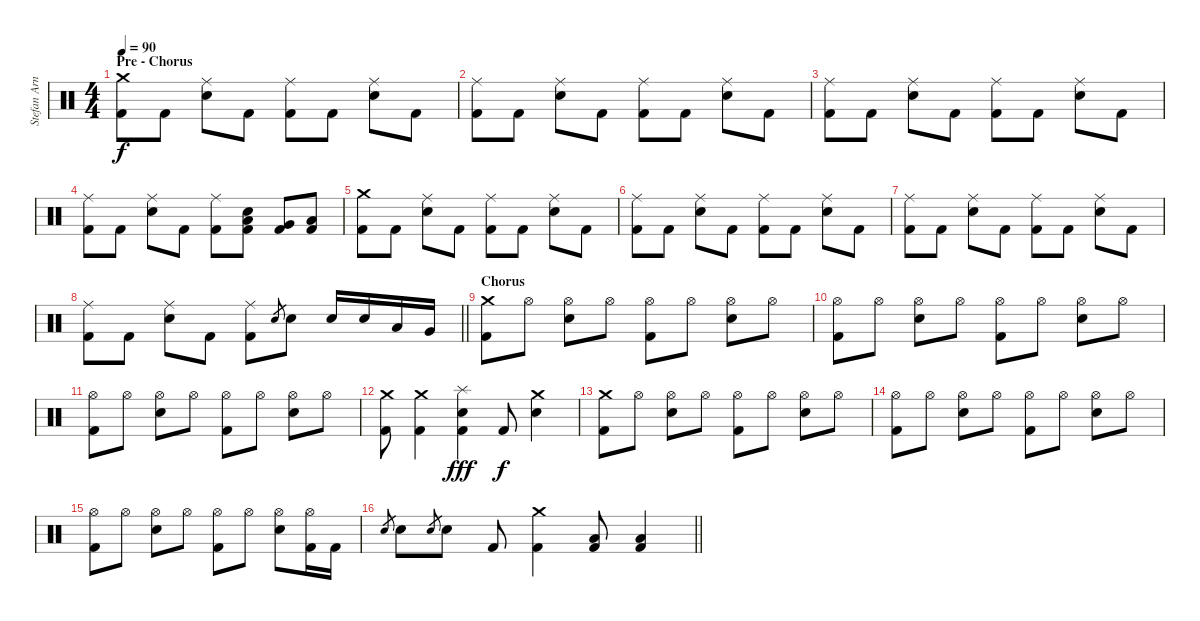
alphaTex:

\track ("Stefan Arnold" "Stefan Arn") {instrument percussion}
\staff {score}
\articulation defaults
\ts (4 4)
\section ("" "Pre - Chorus")
\tempo 90
\clef neutral
\ks c
("Crash medium (hit)" "Kick (hit) 2").8{dy f} "Kick (hit) 2".8 ("Ride (middle)" "Electric Snare (hit)").8 "Kick (hit) 2".8 ("Ride (middle)" "Kick (hit) 2").8 "Kick (hit) 2".8 ("Ride (middle)" "Electric Snare (hit)").8 "Kick (hit) 2".8 |
("Ride (middle)" "Kick (hit) 2").8 "Kick (hit) 2".8 ("Ride (middle)" "Electric Snare (hit)").8 "Kick (hit) 2".8 ("Ride (middle)" "Kick (hit) 2").8 "Kick (hit) 2".8 ("Ride (middle)" "Electric Snare (hit)").8 "Kick (hit) 2".8 |
("Ride (middle)" "Kick (hit) 2").8 "Kick (hit) 2".8 ("Ride (middle)" "Electric Snare (hit)").8 "Kick (hit) 2".8 ("Ride (middle)" "Kick (hit) 2").8 "Kick (hit) 2".8 ("Ride (middle)" "Electric Snare (hit)").8 "Kick (hit) 2".8 |
("Ride (middle)" "Kick (hit) 2").8 "Kick (hit) 2".8 ("Ride (middle)" "Electric Snare (hit)").8 "Kick (hit) 2".8 ("Ride (middle)" "Kick (hit) 2").8 ("Electric Snare (hit)" "Low Tom (hit)" "Kick (hit) 2").8 ("Very Low Tom (hit)" "Kick (hit) 2").8 ("Low Floor Tom (hit)" "Kick (hit) 2").8 |
("Crash medium (hit)" "Kick (hit) 2").8 "Kick (hit) 2".8 ("Ride (middle)" "Electric Snare (hit)").8 "Kick (hit) 2".8 ("Ride (middle)" "Kick (hit) 2").8 "Kick (hit) 2".8 ("Ride (middle)" "Electric Snare (hit)").8 "Kick (hit) 2".8 |
("Ride (middle)" "Kick (hit) 2").8 "Kick (hit) 2".8 ("Ride (middle)" "Electric Snare (hit)").8 "Kick (hit) 2".8 ("Ride (middle)" "Kick (hit) 2").8 "Kick (hit) 2".8 ("Ride (middle)" "Electric Snare (hit)").8 "Kick (hit) 2".8 |
("Ride (middle)" "Kick (hit) 2").8 "Kick (hit) 2".8 ("Ride (middle)" "Electric Snare (hit)").8 "Kick (hit) 2".8 ("Ride (middle)" "Kick (hit) 2").8 "Kick (hit) 2".8 ("Ride (middle)" "Electric Snare (hit)").8 "Kick (hit) 2".8 |
\barLineRight lightlight
("Ride (middle)" "Kick (hit) 2").8 "Kick (hit) 2".8 ("Ride (middle)" "Electric Snare (hit)").8 "Kick (hit) 2".8 ("Ride (middle)" "Kick (hit) 2").8 "Electric Snare (hit)".8{gr} "Electric Snare (hit)".8 "Electric Snare (hit)".16 "Electric Snare (hit)".16 "Low Tom (hit)".16 "Very Low Tom (hit)".16 |
\section ("" "Chorus")
("Crash medium (hit)" "Kick (hit) 2").8 "Hi-Hat (open)".8 ("Hi-Hat (open)" "Electric Snare (hit)").8 "Hi-Hat (open)".8 ("Hi-Hat (open)" "Kick (hit) 2").8 "Hi-Hat (open)".8 ("Hi-Hat (open)" "Electric Snare (hit)").8 "Hi-Hat (open)".8 |
("Hi-Hat (open)" "Kick (hit) 2").8 "Hi-Hat (open)".8 ("Hi-Hat (open)" "Electric Snare (hit)").8 "Hi-Hat (open)".8 ("Hi-Hat (open)" "Kick (hit) 2").8 "Hi-Hat (open)".8 ("Hi-Hat (open)" "Electric Snare (hit)").8 "Hi-Hat (open)".8 |
("Hi-Hat (open)" "Kick (hit) 2").8 "Hi-Hat (open)".8 ("Hi-Hat (open)" "Electric Snare (hit)").8 "Hi-Hat (open)".8 ("Hi-Hat (open)" "Kick (hit) 2").8 "Hi-Hat (open)".8 ("Hi-Hat (open)" "Electric Snare (hit)").8 "Hi-Hat (open)".8 |
("Crash medium (hit)" "Kick (hit) 2").8 ("Crash medium (hit)" "Kick (hit) 2").4 ("Splash (hit)" "Electric Snare (hit)" "Kick (hit) 2").4{dy fff} "Kick (hit) 2".8{dy f} ("Crash medium (hit)" "Electric Snare (hit)").4 |
("Crash medium (hit)" "Kick (hit) 2").8 "Hi-Hat (open)".8 ("Hi-Hat (open)" "Electric Snare (hit)").8 "Hi-Hat (open)".8 ("Hi-Hat (open)" "Kick (hit) 2").8 "Hi-Hat (open)".8 ("Hi-Hat (open)" "Electric Snare (hit)").8 "Hi-Hat (open)".8 |
("Hi-Hat (open)" "Kick (hit) 2").8 "Hi-Hat (open)".8 ("Hi-Hat (open)" "Electric Snare (hit)").8 "Hi-Hat (open)".8 ("Hi-Hat (open)" "Kick (hit) 2").8 "Hi-Hat (open)".8 ("Hi-Hat (open)" "Electric Snare (hit)").8 "Hi-Hat (open)".8 |
("Hi-Hat (open)" "Kick (hit) 2").8 "Hi-Hat (open)".8 ("Hi-Hat (open)" "Electric Snare (hit)").8 "Hi-Hat (open)".8 ("Hi-Hat (open)" "Kick (hit) 2").8 "Hi-Hat (open)".8 ("Hi-Hat (open)" "Electric Snare (hit)").8 ("Hi-Hat (open)" "Kick (hit) 2").16 "Kick (hit) 2".16 |
\barLineRight lightlight "Electric Snare (hit)".8{gr} "Electric Snare (hit)".8 "Electric Snare (hit)".8{gr} "Electric Snare (hit)".8 "Kick (hit) 2".8
("Crash medium (hit)" "Kick (hit) 2").4 ("Low Floor Tom (hit)" "Kick (hit) 2").8 ("Low Floor Tom (hit)" "Kick (hit) 2").4
